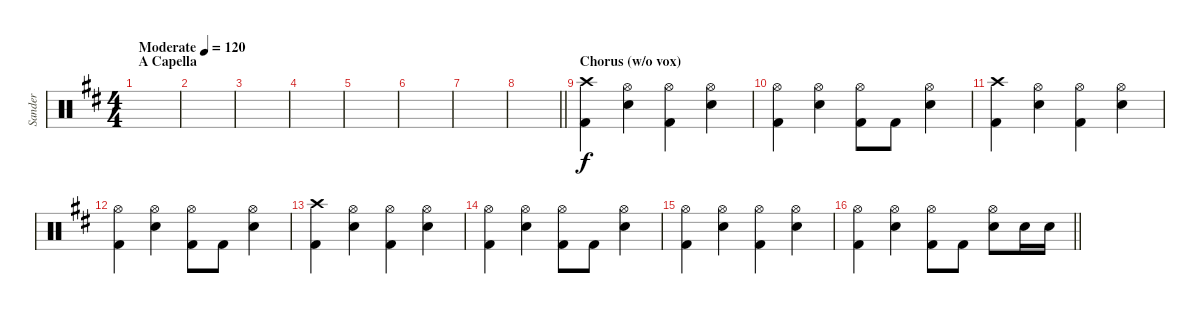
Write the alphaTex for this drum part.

\track ("Sander" "Sander") {instrument percussion}
\staff {score}
\articulation defaults
\ts (4 4)
\section ("" "A Capella")
\tempo (120 "Moderate")
\clef neutral
\ks bminor
|
|
|
|
|
|
|
\barLineRight lightlight
|
\section ("" "Chorus (w/o vox)")
("Crash high (hit)" "Kick (hit) 2").4 ("Hi-Hat (open)" "Snare (hit) 2").4 ("Hi-Hat (open)" "Kick (hit) 2").4 ("Hi-Hat (open)" "Snare (hit) 2").4 |
("Hi-Hat (open)" "Kick (hit) 2").4 ("Hi-Hat (open)" "Snare (hit) 2").4 ("Hi-Hat (open)" "Kick (hit) 2").8 "Kick (hit) 2".8 ("Hi-Hat (open)" "Snare (hit) 2").4 |
("Crash high (hit)" "Kick (hit) 2").4 ("Hi-Hat (open)" "Snare (hit) 2").4 ("Hi-Hat (open)" "Kick (hit) 2").4 ("Hi-Hat (open)" "Snare (hit) 2").4 |
("Hi-Hat (open)" "Kick (hit) 2").4 ("Hi-Hat (open)" "Snare (hit) 2").4 ("Hi-Hat (open)" "Kick (hit) 2").8 "Kick (hit) 2".8 ("Hi-Hat (open)" "Snare (hit) 2").4 |
("Crash high (hit)" "Kick (hit) 2").4 ("Hi-Hat (open)" "Snare (hit) 2").4 ("Hi-Hat (open)" "Kick (hit) 2").4 ("Hi-Hat (open)" "Snare (hit) 2").4 |
("Hi-Hat (open)" "Kick (hit) 2").4 ("Hi-Hat (open)" "Snare (hit) 2").4 ("Hi-Hat (open)" "Kick (hit) 2").8 "Kick (hit) 2".8 ("Hi-Hat (open)" "Snare (hit) 2").4 |
("Hi-Hat (open)" "Kick (hit) 2").4 ("Hi-Hat (open)" "Snare (hit) 2").4 ("Hi-Hat (open)" "Kick (hit) 2").4 ("Hi-Hat (open)" "Snare (hit) 2").4 |
\barLineRight lightlight
("Hi-Hat (open)" "Kick (hit) 2").4 ("Hi-Hat (open)" "Snare (hit) 2").4 ("Hi-Hat (open)" "Kick (hit) 2").8 "Kick (hit) 2".8 ("Hi-Hat (open)" "Snare (hit) 2").8 "Snare (hit) 2".16 "Snare (hit) 2".16
